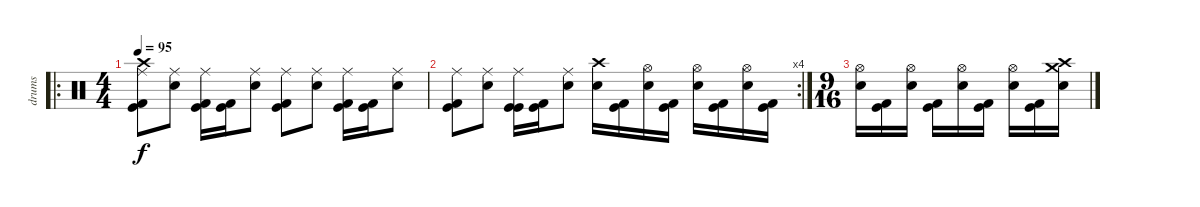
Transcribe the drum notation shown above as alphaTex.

\track ("drums" "drums") {instrument percussion}
\staff {score}
\articulation defaults
\ro
\ts (4 4)
\tempo 95
\clef neutral
\ks c
("Ride (middle)" "Crash high (hit)" "Kick (hit)" "Kick (hit) 2").8{dy f} ("Ride (middle)" "Electric Snare (hit)").8 ("Ride (middle)" "Kick (hit) 2" "Kick (hit)").16 ("Kick (hit) 2" "Kick (hit)").16 ("Ride (middle)" "Electric Snare (hit)").8 ("Ride (middle)" "Kick (hit)" "Kick (hit) 2").8 ("Ride (middle)" "Electric Snare (hit)").8 ("Ride (middle)" "Kick (hit) 2" "Kick (hit)").16 ("Kick (hit) 2" "Kick (hit)").16 ("Ride (middle)" "Electric Snare (hit)").8 |
\rc 4
("Ride (middle)" "Kick (hit) 2" "Kick (hit)").8 ("Ride (middle)" "Electric Snare (hit)").8 ("Ride (middle)" "Kick (hit)" "Kick (hit)").16 ("Kick (hit)" "Kick (hit) 2").16 ("Ride (middle)" "Electric Snare (hit)").8 ("Crash high (hit)" "Electric Snare (hit)").16 ("Kick (hit)" "Kick (hit) 2").16 ("Hi-Hat (open)" "Electric Snare (hit)").16 ("Kick (hit)" "Kick (hit) 2").16 ("Hi-Hat (open)" "Electric Snare (hit)").16 ("Kick (hit)" "Kick (hit) 2").16 ("Hi-Hat (open)" "Electric Snare (hit)").16 ("Kick (hit)" "Kick (hit) 2").16 |
\ts (9 16)
("Hi-Hat (open)" "Electric Snare (hit)").16 ("Kick (hit) 2" "Kick (hit)").16 ("Hi-Hat (open)" "Electric Snare (hit)").16 ("Kick (hit) 2" "Kick (hit)").16 ("Hi-Hat (open)" "Electric Snare (hit)").16 ("Kick (hit) 2" "Kick (hit)").16 ("Hi-Hat (open)" "Electric Snare (hit)").16 ("Kick (hit) 2" "Kick (hit)").16 ("Crash high (hit)" "Crash medium (hit)" "Electric Snare (hit)").16
